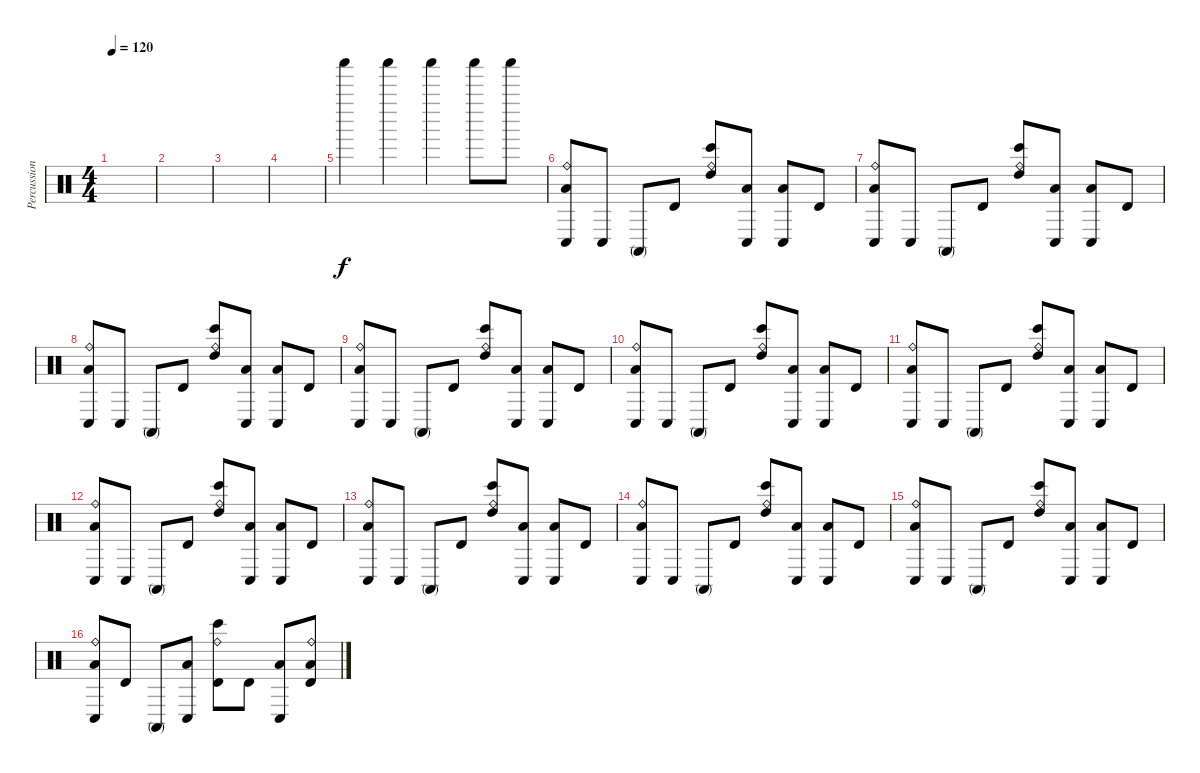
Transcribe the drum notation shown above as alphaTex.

\track ("Percussion" "Percussion") {instrument percussion}
\staff {score}
\articulation defaults
\ts (4 4)
\tempo 120
\clef neutral
\ks c
|
|
|
|
"Shaker (hit)".4 "Shaker (hit)".4 "Shaker (hit)".4 "Shaker (hit)".8 "Shaker (hit)".8 |
("Low Tom (hit)" "Conga low (hit)" "Ride (bell)").8 "Conga low (hit)".8 "Conga high (mute)".8 "Timbale high (hit)".8 ("High Tom (hit)" "Bongo High (hit)" "Ride (bell)").8 ("Low Tom (hit)" "Conga low (hit)").8 ("Low Tom (hit)" "Conga low (hit)").8 "Timbale high (hit)".8 |
("Low Tom (hit)" "Conga low (hit)" "Ride (bell)").8 "Conga low (hit)".8 "Conga high (mute)".8 "Timbale high (hit)".8 ("High Tom (hit)" "Bongo High (hit)" "Ride (bell)").8 ("Low Tom (hit)" "Conga low (hit)").8 ("Low Tom (hit)" "Conga low (hit)").8 "Timbale high (hit)".8 |
("Low Tom (hit)" "Conga low (hit)" "Ride (bell)").8 "Conga low (hit)".8 "Conga high (mute)".8 "Timbale high (hit)".8 ("High Tom (hit)" "Bongo High (hit)" "Ride (bell)").8 ("Low Tom (hit)" "Conga low (hit)").8 ("Low Tom (hit)" "Conga low (hit)").8 "Timbale high (hit)".8 |
("Low Tom (hit)" "Conga low (hit)" "Ride (bell)").8 "Conga low (hit)".8 "Conga high (mute)".8 "Timbale high (hit)".8 ("High Tom (hit)" "Bongo High (hit)" "Ride (bell)").8 ("Low Tom (hit)" "Conga low (hit)").8 ("Low Tom (hit)" "Conga low (hit)").8 "Timbale high (hit)".8 |
("Low Tom (hit)" "Conga low (hit)" "Ride (bell)").8 "Conga low (hit)".8 "Conga high (mute)".8 "Timbale high (hit)".8 ("High Tom (hit)" "Bongo High (hit)" "Ride (bell)").8 ("Low Tom (hit)" "Conga low (hit)").8 ("Low Tom (hit)" "Conga low (hit)").8 "Timbale high (hit)".8 |
("Low Tom (hit)" "Conga low (hit)" "Ride (bell)").8 "Conga low (hit)".8 "Conga high (mute)".8 "Timbale high (hit)".8 ("High Tom (hit)" "Bongo High (hit)" "Ride (bell)").8 ("Low Tom (hit)" "Conga low (hit)").8 ("Low Tom (hit)" "Conga low (hit)").8 "Timbale high (hit)".8 |
("Low Tom (hit)" "Ride (bell)" "Conga low (hit)").8 "Conga low (hit)".8 "Conga high (mute)".8 "Timbale high (hit)".8 ("High Tom (hit)" "Bongo High (hit)" "Ride (bell)").8 ("Low Tom (hit)" "Conga low (hit)").8 ("Low Tom (hit)" "Conga low (hit)").8 "Timbale high (hit)".8 |
("Low Tom (hit)" "Conga low (hit)" "Ride (bell)").8 "Conga low (hit)".8 "Conga high (mute)".8 "Timbale high (hit)".8 ("High Tom (hit)" "Bongo High (hit)" "Ride (bell)").8 ("Low Tom (hit)" "Conga low (hit)").8 ("Low Tom (hit)" "Conga low (hit)").8 "Timbale high (hit)".8 |
("Low Tom (hit)" "Conga low (hit)" "Ride (bell)").8 "Conga low (hit)".8 "Conga high (mute)".8 "Timbale high (hit)".8 ("High Tom (hit)" "Bongo High (hit)" "Ride (bell)").8 ("Low Tom (hit)" "Conga low (hit)").8 ("Low Tom (hit)" "Conga low (hit)").8 "Timbale high (hit)".8 |
("Low Tom (hit)" "Conga low (hit)" "Ride (bell)").8 "Conga low (hit)".8 "Conga high (mute)".8 "Timbale high (hit)".8 ("High Tom (hit)" "Bongo High (hit)" "Ride (bell)").8 ("Low Tom (hit)" "Conga low (hit)").8 ("Low Tom (hit)" "Conga low (hit)").8 "Timbale high (hit)".8 |
("Low Tom (hit)" "Conga low (hit)" "Ride (bell)").8 "Timbale high (hit)".8 "Conga high (mute)".8 ("Low Tom (hit)" "Conga low (hit)").8 ("Timbale high (hit)" "Bongo High (hit)" "Ride (bell)").8 "Timbale high (hit)".8 ("Low Tom (hit)" "Conga low (hit)").8 ("Low Tom (hit)" "Timbale high (hit)" "Ride (bell)").8
